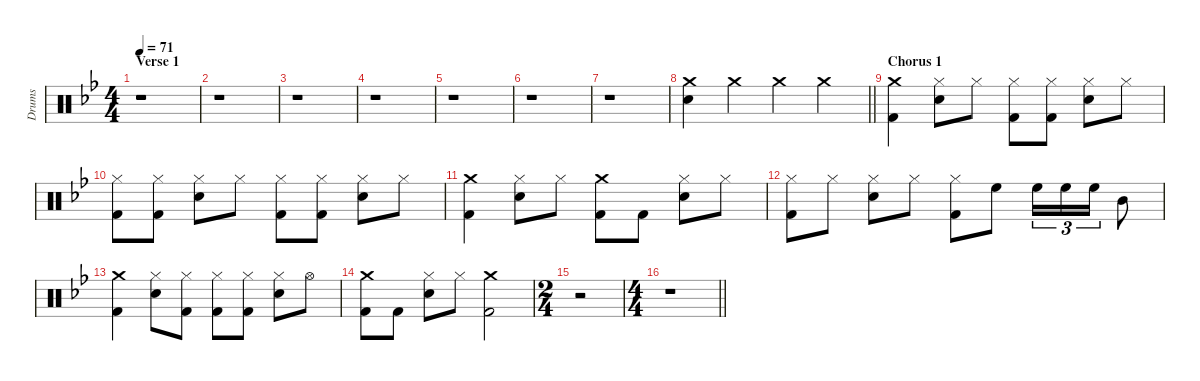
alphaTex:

\defaultSystemsLayout 8
\hideDynamics
\bracketExtendMode nobrackets
\otherSystemsTrackNameOrientation horizontal
\track ("Drumkit" "Drums") {defaultSystemsLayout 4 instrument percussion}
\staff {score}
\articulation defaults
\ts (4 4)
\section ("" "Verse 1")
\tempo 71
\clef neutral
\ks gminor
r.1{dy f beam Down} |
r.1{beam Down} |
r.1{beam Down} |
r.1{beam Down} |
r.1{beam Down} |
r.1{beam Down} |
r.1{beam Down} |
\barLineRight lightlight
("Crash medium (hit)"{acc forcenatural} "Snare (hit) 2"{acc forcenatural}).4{beam Down} "Crash medium (hit)"{acc forcenatural}.4{beam Down} "Crash medium (hit)"{acc forcenatural}.4{beam Down} "Crash medium (hit)"{acc forcenatural}.4{beam Down} |
\section ("" "Chorus 1")
("Crash medium (hit)"{acc forcenatural} "Kick (hit) 2"{acc forcenatural}).4{beam Down} ("Hi-Hat (closed)"{acc forcenatural} "Snare (hit) 2"{acc forcenatural}).8{beam Down} "Hi-Hat (closed)"{acc forcenatural}.8{beam Down} ("Hi-Hat (closed)"{acc forcenatural} "Kick (hit) 2"{acc forcenatural}).8{beam Down} ("Hi-Hat (closed)"{acc forcenatural} "Kick (hit) 2"{acc forcenatural}).8{beam Down} ("Hi-Hat (closed)"{acc forcenatural} "Snare (hit) 2"{acc forcenatural}).8{beam Down} "Hi-Hat (closed)"{acc forcenatural}.8{beam Down} |
("Hi-Hat (closed)"{acc forcenatural} "Kick (hit) 2"{acc forcenatural}).8{beam Down} ("Hi-Hat (closed)"{acc forcenatural} "Kick (hit) 2"{acc forcenatural}).8{beam Down} ("Hi-Hat (closed)"{acc forcenatural} "Snare (hit) 2"{acc forcenatural}).8{beam Down} "Hi-Hat (closed)"{acc forcenatural}.8{beam Down} ("Hi-Hat (closed)"{acc forcenatural} "Kick (hit) 2"{acc forcenatural}).8{beam Down} ("Hi-Hat (closed)"{acc forcenatural} "Kick (hit) 2"{acc forcenatural}).8{beam Down} ("Hi-Hat (closed)"{acc forcenatural} "Snare (hit) 2"{acc forcenatural}).8{beam Down} "Hi-Hat (closed)"{acc forcenatural}.8{beam Down} |
("Crash medium (hit)"{acc forcenatural} "Kick (hit) 2"{acc forcenatural}).4{beam Down} ("Hi-Hat (closed)"{acc forcenatural} "Snare (hit) 2"{acc forcenatural}).8{beam Down} "Hi-Hat (closed)"{acc forcenatural}.8{beam Down} ("Crash medium (hit)"{acc forcenatural} "Kick (hit) 2"{acc forcenatural}).8{beam Down} "Kick (hit) 2"{acc forcenatural}.8{beam Down} ("Hi-Hat (closed)"{acc forcenatural} "Snare (hit) 2"{acc forcenatural}).8{beam Down} "Hi-Hat (closed)"{acc forcenatural}.8{beam Down} |
("Hi-Hat (closed)"{acc forcenatural} "Kick (hit) 2"{acc forcenatural}).8{beam Down} "Hi-Hat (closed)"{acc forcenatural}.8{beam Down} ("Hi-Hat (closed)"{acc forcenatural} "Snare (hit) 2"{acc forcenatural}).8{beam Down} "Hi-Hat (closed)"{acc forcenatural}.8{beam Down} ("Hi-Hat (closed)"{acc forcenatural} "Kick (hit) 2"{acc forcenatural}).8{beam Down} "High Floor Tom (hit)"{acc forcenatural}.8{beam Down} "High Floor Tom (hit)"{acc forcenatural}.16{tu (3 2) beam Down} "High Floor Tom (hit)"{acc forcenatural}.16{tu (3 2) beam Down} "High Floor Tom (hit)"{acc forcenatural}.16{tu (3 2) beam Down} "Mid Tom (hit)"{acc forcenatural}.8{beam Down} |
("Crash medium (hit)"{acc forcenatural} "Kick (hit) 2"{acc forcenatural}).4{beam Down} ("Hi-Hat (closed)"{acc forcenatural} "Snare (hit) 2"{acc forcenatural}).8{beam Down} ("Hi-Hat (closed)"{acc forcenatural} "Kick (hit) 2"{acc forcenatural}).8{beam Down} ("Hi-Hat (closed)"{acc forcenatural} "Kick (hit) 2"{acc forcenatural}).8{beam Down} ("Hi-Hat (closed)"{acc forcenatural} "Kick (hit) 2"{acc forcenatural}).8{beam Down} ("Hi-Hat (closed)"{acc forcenatural} "Snare (hit) 2"{acc forcenatural}).8{beam Down} "Hi-Hat (open)"{acc forcenatural}.8{beam Down} |
("Crash medium (hit)"{acc forcenatural} "Kick (hit) 2"{acc forcenatural}).8{beam Down} "Kick (hit) 2"{acc forcenatural}.8{beam Down} ("Hi-Hat (closed)"{acc forcenatural} "Snare (hit) 2"{acc forcenatural}).8{beam Down} "Hi-Hat (closed)"{acc forcenatural}.8{beam Down} ("Crash medium (hit)"{acc forcenatural} "Kick (hit) 2"{acc forcenatural}).2{beam Down} |
\ts (2 4)
r.2{beam Down} |
\ts (4 4)
\barLineRight lightlight
r.1{beam Down}
